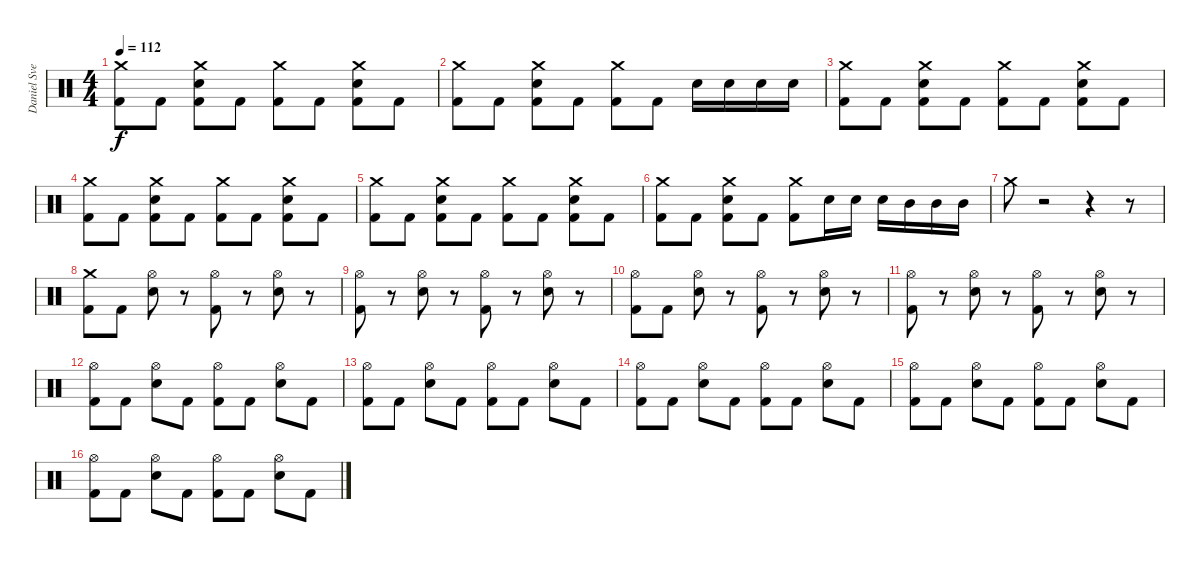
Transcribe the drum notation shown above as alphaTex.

\track ("Daniel Svensson" "Daniel Sve") {instrument percussion}
\staff {score}
\articulation defaults
\ts (4 4)
\tempo 112
\clef neutral
\ks c
("Crash medium (hit)" "Kick (hit) 2").8{dy f} "Kick (hit) 2".8 ("Crash medium (hit)" "Snare (hit) 2" "Kick (hit) 2").8 "Kick (hit) 2".8 ("Crash medium (hit)" "Kick (hit) 2").8 "Kick (hit) 2".8 ("Crash medium (hit)" "Snare (hit) 2" "Kick (hit) 2").8 "Kick (hit) 2".8 |
("Crash medium (hit)" "Kick (hit) 2").8 "Kick (hit) 2".8 ("Crash medium (hit)" "Snare (hit) 2" "Kick (hit) 2").8 "Kick (hit) 2".8 ("Crash medium (hit)" "Kick (hit) 2").8 "Kick (hit) 2".8 "Snare (hit) 2".16 "Snare (hit) 2".16 "Snare (hit) 2".16 "Snare (hit) 2".16 |
("Crash medium (hit)" "Kick (hit) 2").8 "Kick (hit) 2".8 ("Crash medium (hit)" "Snare (hit) 2" "Kick (hit) 2").8 "Kick (hit) 2".8 ("Crash medium (hit)" "Kick (hit) 2").8 "Kick (hit) 2".8 ("Crash medium (hit)" "Snare (hit) 2" "Kick (hit) 2").8 "Kick (hit) 2".8 |
("Crash medium (hit)" "Kick (hit) 2").8 "Kick (hit) 2".8 ("Crash medium (hit)" "Snare (hit) 2" "Kick (hit) 2").8 "Kick (hit) 2".8 ("Crash medium (hit)" "Kick (hit) 2").8 "Kick (hit) 2".8 ("Crash medium (hit)" "Snare (hit) 2" "Kick (hit) 2").8 "Kick (hit) 2".8 |
("Crash medium (hit)" "Kick (hit) 2").8 "Kick (hit) 2".8 ("Crash medium (hit)" "Snare (hit) 2" "Kick (hit) 2").8 "Kick (hit) 2".8 ("Crash medium (hit)" "Kick (hit) 2").8 "Kick (hit) 2".8 ("Crash medium (hit)" "Snare (hit) 2" "Kick (hit) 2").8 "Kick (hit) 2".8 |
("Crash medium (hit)" "Kick (hit) 2").8 "Kick (hit) 2".8 ("Crash medium (hit)" "Snare (hit) 2" "Kick (hit) 2").8 "Kick (hit) 2".8 ("Crash medium (hit)" "Kick (hit) 2").8 "Snare (hit) 2".16 "Snare (hit) 2".16 "Snare (hit) 2".16 "Mid Tom (hit)".16 "Mid Tom (hit)".16 "Mid Tom (hit)".16 |
"Crash medium (hit)".8 r.2 r.4 r.8 |
("Crash medium (hit)" "Kick (hit) 2").8 "Kick (hit) 2".8 ("Hi-Hat (open)" "Snare (hit) 2").8 r.8 ("Hi-Hat (open)" "Kick (hit) 2").8 r.8 ("Hi-Hat (open)" "Snare (hit) 2").8 r.8 |
("Hi-Hat (open)" "Kick (hit) 2").8 r.8 ("Hi-Hat (open)" "Snare (hit) 2").8 r.8 ("Hi-Hat (open)" "Kick (hit) 2").8 r.8 ("Hi-Hat (open)" "Snare (hit) 2").8 r.8 |
("Hi-Hat (open)" "Kick (hit) 2").8 "Kick (hit) 2".8 ("Hi-Hat (open)" "Snare (hit) 2").8 r.8 ("Hi-Hat (open)" "Kick (hit) 2").8 r.8 ("Hi-Hat (open)" "Snare (hit) 2").8 r.8 |
("Hi-Hat (open)" "Kick (hit) 2").8 r.8 ("Hi-Hat (open)" "Snare (hit) 2").8 r.8 ("Hi-Hat (open)" "Kick (hit) 2").8 r.8 ("Hi-Hat (open)" "Snare (hit) 2").8 r.8 |
("Hi-Hat (open)" "Kick (hit) 2").8 "Kick (hit) 2".8 ("Hi-Hat (open)" "Snare (hit) 2").8 "Kick (hit) 2".8 ("Hi-Hat (open)" "Kick (hit) 2").8 "Kick (hit) 2".8 ("Hi-Hat (open)" "Snare (hit) 2").8 "Kick (hit) 2".8 |
("Hi-Hat (open)" "Kick (hit) 2").8 "Kick (hit) 2".8 ("Hi-Hat (open)" "Snare (hit) 2").8 "Kick (hit) 2".8 ("Hi-Hat (open)" "Kick (hit) 2").8 "Kick (hit) 2".8 ("Hi-Hat (open)" "Snare (hit) 2").8 "Kick (hit) 2".8 |
("Hi-Hat (open)" "Kick (hit) 2").8 "Kick (hit) 2".8 ("Hi-Hat (open)" "Snare (hit) 2").8 "Kick (hit) 2".8 ("Hi-Hat (open)" "Kick (hit) 2").8 "Kick (hit) 2".8 ("Hi-Hat (open)" "Snare (hit) 2").8 "Kick (hit) 2".8 |
("Hi-Hat (open)" "Kick (hit) 2").8 "Kick (hit) 2".8 ("Hi-Hat (open)" "Snare (hit) 2").8 "Kick (hit) 2".8 ("Hi-Hat (open)" "Kick (hit) 2").8 "Kick (hit) 2".8 ("Hi-Hat (open)" "Snare (hit) 2").8 "Kick (hit) 2".8 |
("Hi-Hat (open)" "Kick (hit) 2").8 "Kick (hit) 2".8 ("Hi-Hat (open)" "Snare (hit) 2").8 "Kick (hit) 2".8 ("Hi-Hat (open)" "Kick (hit) 2").8 "Kick (hit) 2".8 ("Hi-Hat (open)" "Snare (hit) 2").8 "Kick (hit) 2".8
